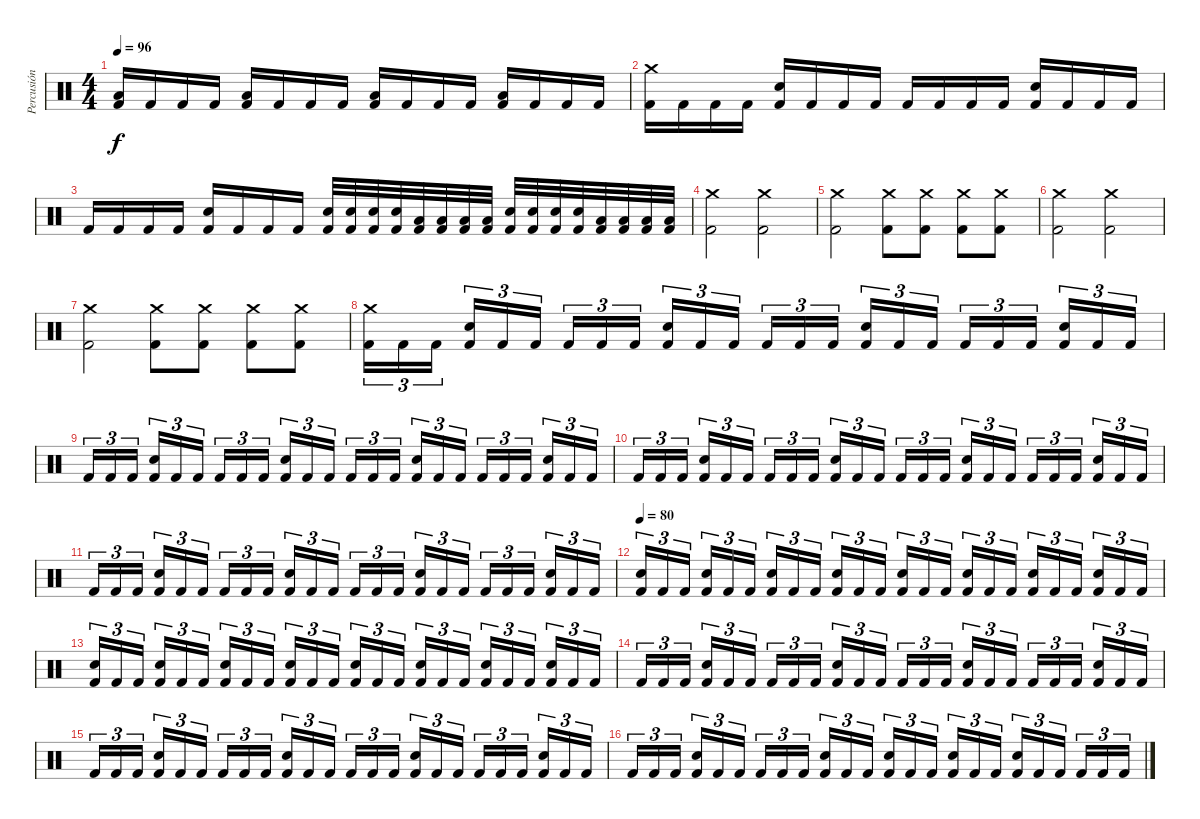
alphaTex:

\track ("Percusión" "Percusión") {instrument percussion}
\staff {score}
\articulation defaults
\ts (4 4)
\tempo 96
\clef neutral
\ks c
("Kick (hit) 2" "Low Tom (hit)").16{dy f} "Kick (hit) 2".16 "Kick (hit) 2".16 "Kick (hit) 2".16 ("Kick (hit) 2" "Low Floor Tom (hit)").16 "Kick (hit) 2".16 "Kick (hit) 2".16 "Kick (hit) 2".16 ("Kick (hit) 2" "Low Tom (hit)").16 "Kick (hit) 2".16 "Kick (hit) 2".16 "Kick (hit) 2".16 ("Kick (hit) 2" "Low Floor Tom (hit)").16 "Kick (hit) 2".16 "Kick (hit) 2".16 "Kick (hit) 2".16 |
("Kick (hit) 2" "Crash medium (hit)").16 "Kick (hit) 2".16 "Kick (hit) 2".16 "Kick (hit) 2".16 ("Kick (hit) 2" "Snare (hit) 2").16 "Kick (hit) 2".16 "Kick (hit) 2".16 "Kick (hit) 2".16 "Kick (hit) 2".16 "Kick (hit) 2".16 "Kick (hit) 2".16 "Kick (hit) 2".16 ("Kick (hit) 2" "Snare (hit) 2").16 "Kick (hit) 2".16 "Kick (hit) 2".16 "Kick (hit) 2".16 |
"Kick (hit) 2".16 "Kick (hit) 2".16 "Kick (hit) 2".16 "Kick (hit) 2".16 ("Kick (hit) 2" "Snare (hit) 2").16 "Kick (hit) 2".16 "Kick (hit) 2".16 "Kick (hit) 2".16 ("Kick (hit) 2" "Snare (hit) 2").32 ("Kick (hit) 2" "Snare (hit) 2").32 ("Kick (hit) 2" "Snare (hit) 2").32 ("Kick (hit) 2" "Snare (hit) 2").32 ("Kick (hit) 2" "Low Tom (hit)").32 ("Kick (hit) 2" "Low Tom (hit)").32 ("Kick (hit) 2" "Low Tom (hit)").32 ("Kick (hit) 2" "Low Tom (hit)").32 ("Kick (hit) 2" "Snare (hit) 2").32 ("Kick (hit) 2" "Snare (hit) 2").32 ("Kick (hit) 2" "Snare (hit) 2").32 ("Kick (hit) 2" "Snare (hit) 2").32 ("Kick (hit) 2" "Low Tom (hit)").32 ("Kick (hit) 2" "Low Tom (hit)").32 ("Kick (hit) 2" "Low Tom (hit)").32 ("Kick (hit) 2" "Low Tom (hit)").32 |
("Crash medium (hit)" "Kick (hit) 2").2 ("Crash medium (hit)" "Kick (hit) 2").2 |
("Crash medium (hit)" "Kick (hit) 2").2 ("Crash medium (hit)" "Kick (hit) 2").8 ("Crash medium (hit)" "Kick (hit) 2").8 ("Crash medium (hit)" "Kick (hit) 2").8 ("Crash medium (hit)" "Kick (hit) 2").8 |
("Crash medium (hit)" "Kick (hit) 2").2 ("Crash medium (hit)" "Kick (hit) 2").2 |
("Crash medium (hit)" "Kick (hit) 2").2 ("Crash medium (hit)" "Kick (hit) 2").8 ("Crash medium (hit)" "Kick (hit) 2").8 ("Crash medium (hit)" "Kick (hit) 2").8 ("Crash medium (hit)" "Kick (hit) 2").8 |
("Kick (hit) 2" "Crash medium (hit)").16{tu (3 2)} "Kick (hit) 2".16{tu (3 2)} "Kick (hit) 2".16{tu (3 2) beam splitsecondary} ("Kick (hit) 2" "Snare (hit) 2").16{tu (3 2)} "Kick (hit) 2".16{tu (3 2)} "Kick (hit) 2".16{tu (3 2)} "Kick (hit) 2".16{tu (3 2)} "Kick (hit) 2".16{tu (3 2)} "Kick (hit) 2".16{tu (3 2) beam splitsecondary} ("Kick (hit) 2" "Snare (hit) 2").16{tu (3 2)} "Kick (hit) 2".16{tu (3 2)} "Kick (hit) 2".16{tu (3 2)} "Kick (hit) 2".16{tu (3 2)} "Kick (hit) 2".16{tu (3 2)} "Kick (hit) 2".16{tu (3 2) beam splitsecondary} ("Kick (hit) 2" "Snare (hit) 2").16{tu (3 2)} "Kick (hit) 2".16{tu (3 2)} "Kick (hit) 2".16{tu (3 2)} "Kick (hit) 2".16{tu (3 2)} "Kick (hit) 2".16{tu (3 2)} "Kick (hit) 2".16{tu (3 2) beam splitsecondary} ("Kick (hit) 2" "Snare (hit) 2").16{tu (3 2)} "Kick (hit) 2".16{tu (3 2)} "Kick (hit) 2".16{tu (3 2)} |
"Kick (hit) 2".16{tu (3 2)} "Kick (hit) 2".16{tu (3 2)} "Kick (hit) 2".16{tu (3 2) beam splitsecondary} ("Kick (hit) 2" "Snare (hit) 2").16{tu (3 2)} "Kick (hit) 2".16{tu (3 2)} "Kick (hit) 2".16{tu (3 2)} "Kick (hit) 2".16{tu (3 2)} "Kick (hit) 2".16{tu (3 2)} "Kick (hit) 2".16{tu (3 2) beam splitsecondary} ("Kick (hit) 2" "Snare (hit) 2").16{tu (3 2)} "Kick (hit) 2".16{tu (3 2)} "Kick (hit) 2".16{tu (3 2)} "Kick (hit) 2".16{tu (3 2)} "Kick (hit) 2".16{tu (3 2)} "Kick (hit) 2".16{tu (3 2) beam splitsecondary} ("Kick (hit) 2" "Snare (hit) 2").16{tu (3 2)} "Kick (hit) 2".16{tu (3 2)} "Kick (hit) 2".16{tu (3 2)} "Kick (hit) 2".16{tu (3 2)} "Kick (hit) 2".16{tu (3 2)} "Kick (hit) 2".16{tu (3 2) beam splitsecondary} ("Kick (hit) 2" "Snare (hit) 2").16{tu (3 2)} "Kick (hit) 2".16{tu (3 2)} "Kick (hit) 2".16{tu (3 2)} |
"Kick (hit) 2".16{tu (3 2)} "Kick (hit) 2".16{tu (3 2)} "Kick (hit) 2".16{tu (3 2) beam splitsecondary} ("Kick (hit) 2" "Snare (hit) 2").16{tu (3 2)} "Kick (hit) 2".16{tu (3 2)} "Kick (hit) 2".16{tu (3 2)} "Kick (hit) 2".16{tu (3 2)} "Kick (hit) 2".16{tu (3 2)} "Kick (hit) 2".16{tu (3 2) beam splitsecondary} ("Kick (hit) 2" "Snare (hit) 2").16{tu (3 2)} "Kick (hit) 2".16{tu (3 2)} "Kick (hit) 2".16{tu (3 2)} "Kick (hit) 2".16{tu (3 2)} "Kick (hit) 2".16{tu (3 2)} "Kick (hit) 2".16{tu (3 2) beam splitsecondary} ("Kick (hit) 2" "Snare (hit) 2").16{tu (3 2)} "Kick (hit) 2".16{tu (3 2)} "Kick (hit) 2".16{tu (3 2)} "Kick (hit) 2".16{tu (3 2)} "Kick (hit) 2".16{tu (3 2)} "Kick (hit) 2".16{tu (3 2) beam splitsecondary} ("Kick (hit) 2" "Snare (hit) 2").16{tu (3 2)} "Kick (hit) 2".16{tu (3 2)} "Kick (hit) 2".16{tu (3 2)} |
"Kick (hit) 2".16{tu (3 2)} "Kick (hit) 2".16{tu (3 2)} "Kick (hit) 2".16{tu (3 2) beam splitsecondary} ("Kick (hit) 2" "Snare (hit) 2").16{tu (3 2)} "Kick (hit) 2".16{tu (3 2)} "Kick (hit) 2".16{tu (3 2)} "Kick (hit) 2".16{tu (3 2)} "Kick (hit) 2".16{tu (3 2)} "Kick (hit) 2".16{tu (3 2) beam splitsecondary} ("Kick (hit) 2" "Snare (hit) 2").16{tu (3 2)} "Kick (hit) 2".16{tu (3 2)} "Kick (hit) 2".16{tu (3 2)} "Kick (hit) 2".16{tu (3 2)} "Kick (hit) 2".16{tu (3 2)} "Kick (hit) 2".16{tu (3 2) beam splitsecondary} ("Kick (hit) 2" "Snare (hit) 2").16{tu (3 2)} "Kick (hit) 2".16{tu (3 2)} "Kick (hit) 2".16{tu (3 2)} "Kick (hit) 2".16{tu (3 2)} "Kick (hit) 2".16{tu (3 2)} "Kick (hit) 2".16{tu (3 2) beam splitsecondary} ("Kick (hit) 2" "Snare (hit) 2").16{tu (3 2)} "Kick (hit) 2".16{tu (3 2)} "Kick (hit) 2".16{tu (3 2)} |
\tempo 80
("Kick (hit) 2" "Snare (hit) 2").16{tu (3 2)} "Kick (hit) 2".16{tu (3 2)} "Kick (hit) 2".16{tu (3 2) beam splitsecondary} ("Kick (hit) 2" "Snare (hit) 2").16{tu (3 2)} "Kick (hit) 2".16{tu (3 2)} "Kick (hit) 2".16{tu (3 2)} ("Kick (hit) 2" "Snare (hit) 2").16{tu (3 2)} "Kick (hit) 2".16{tu (3 2)} "Kick (hit) 2".16{tu (3 2) beam splitsecondary} ("Kick (hit) 2" "Snare (hit) 2").16{tu (3 2)} "Kick (hit) 2".16{tu (3 2)} "Kick (hit) 2".16{tu (3 2)} ("Kick (hit) 2" "Snare (hit) 2").16{tu (3 2)} "Kick (hit) 2".16{tu (3 2)} "Kick (hit) 2".16{tu (3 2) beam splitsecondary} ("Kick (hit) 2" "Snare (hit) 2").16{tu (3 2)} "Kick (hit) 2".16{tu (3 2)} "Kick (hit) 2".16{tu (3 2)} ("Kick (hit) 2" "Snare (hit) 2").16{tu (3 2)} "Kick (hit) 2".16{tu (3 2)} "Kick (hit) 2".16{tu (3 2) beam splitsecondary} ("Kick (hit) 2" "Snare (hit) 2").16{tu (3 2)} "Kick (hit) 2".16{tu (3 2)} "Kick (hit) 2".16{tu (3 2)} |
("Kick (hit) 2" "Snare (hit) 2").16{tu (3 2)} "Kick (hit) 2".16{tu (3 2)} "Kick (hit) 2".16{tu (3 2) beam splitsecondary} ("Kick (hit) 2" "Snare (hit) 2").16{tu (3 2)} "Kick (hit) 2".16{tu (3 2)} "Kick (hit) 2".16{tu (3 2)} ("Kick (hit) 2" "Snare (hit) 2").16{tu (3 2)} "Kick (hit) 2".16{tu (3 2)} "Kick (hit) 2".16{tu (3 2) beam splitsecondary} ("Kick (hit) 2" "Snare (hit) 2").16{tu (3 2)} "Kick (hit) 2".16{tu (3 2)} "Kick (hit) 2".16{tu (3 2)} ("Kick (hit) 2" "Snare (hit) 2").16{tu (3 2)} "Kick (hit) 2".16{tu (3 2)} "Kick (hit) 2".16{tu (3 2) beam splitsecondary} ("Kick (hit) 2" "Snare (hit) 2").16{tu (3 2)} "Kick (hit) 2".16{tu (3 2)} "Kick (hit) 2".16{tu (3 2)} ("Kick (hit) 2" "Snare (hit) 2").16{tu (3 2)} "Kick (hit) 2".16{tu (3 2)} "Kick (hit) 2".16{tu (3 2) beam splitsecondary} ("Kick (hit) 2" "Snare (hit) 2").16{tu (3 2)} "Kick (hit) 2".16{tu (3 2)} "Kick (hit) 2".16{tu (3 2)} |
"Kick (hit) 2".16{tu (3 2)} "Kick (hit) 2".16{tu (3 2)} "Kick (hit) 2".16{tu (3 2) beam splitsecondary} ("Kick (hit) 2" "Snare (hit) 2").16{tu (3 2)} "Kick (hit) 2".16{tu (3 2)} "Kick (hit) 2".16{tu (3 2)} "Kick (hit) 2".16{tu (3 2)} "Kick (hit) 2".16{tu (3 2)} "Kick (hit) 2".16{tu (3 2) beam splitsecondary} ("Kick (hit) 2" "Snare (hit) 2").16{tu (3 2)} "Kick (hit) 2".16{tu (3 2)} "Kick (hit) 2".16{tu (3 2)} "Kick (hit) 2".16{tu (3 2)} "Kick (hit) 2".16{tu (3 2)} "Kick (hit) 2".16{tu (3 2) beam splitsecondary} ("Kick (hit) 2" "Snare (hit) 2").16{tu (3 2)} "Kick (hit) 2".16{tu (3 2)} "Kick (hit) 2".16{tu (3 2)} "Kick (hit) 2".16{tu (3 2)} "Kick (hit) 2".16{tu (3 2)} "Kick (hit) 2".16{tu (3 2) beam splitsecondary} ("Kick (hit) 2" "Snare (hit) 2").16{tu (3 2)} "Kick (hit) 2".16{tu (3 2)} "Kick (hit) 2".16{tu (3 2)} |
"Kick (hit) 2".16{tu (3 2)} "Kick (hit) 2".16{tu (3 2)} "Kick (hit) 2".16{tu (3 2) beam splitsecondary} ("Kick (hit) 2" "Snare (hit) 2").16{tu (3 2)} "Kick (hit) 2".16{tu (3 2)} "Kick (hit) 2".16{tu (3 2)} "Kick (hit) 2".16{tu (3 2)} "Kick (hit) 2".16{tu (3 2)} "Kick (hit) 2".16{tu (3 2) beam splitsecondary} ("Kick (hit) 2" "Snare (hit) 2").16{tu (3 2)} "Kick (hit) 2".16{tu (3 2)} "Kick (hit) 2".16{tu (3 2)} "Kick (hit) 2".16{tu (3 2)} "Kick (hit) 2".16{tu (3 2)} "Kick (hit) 2".16{tu (3 2) beam splitsecondary} ("Kick (hit) 2" "Snare (hit) 2").16{tu (3 2)} "Kick (hit) 2".16{tu (3 2)} "Kick (hit) 2".16{tu (3 2)} "Kick (hit) 2".16{tu (3 2)} "Kick (hit) 2".16{tu (3 2)} "Kick (hit) 2".16{tu (3 2) beam splitsecondary} ("Kick (hit) 2" "Snare (hit) 2").16{tu (3 2)} "Kick (hit) 2".16{tu (3 2)} "Kick (hit) 2".16{tu (3 2)} |
"Kick (hit) 2".16{tu (3 2)} "Kick (hit) 2".16{tu (3 2)} "Kick (hit) 2".16{tu (3 2) beam splitsecondary} ("Kick (hit) 2" "Snare (hit) 2").16{tu (3 2)} "Kick (hit) 2".16{tu (3 2)} "Kick (hit) 2".16{tu (3 2)} "Kick (hit) 2".16{tu (3 2)} "Kick (hit) 2".16{tu (3 2)} "Kick (hit) 2".16{tu (3 2) beam splitsecondary} ("Kick (hit) 2" "Snare (hit) 2").16{tu (3 2)} "Kick (hit) 2".16{tu (3 2)} "Kick (hit) 2".16{tu (3 2)} ("Kick (hit) 2" "Snare (hit) 2").16{tu (3 2)} "Kick (hit) 2".16{tu (3 2)} "Kick (hit) 2".16{tu (3 2) beam splitsecondary} ("Kick (hit) 2" "Snare (hit) 2").16{tu (3 2)} "Kick (hit) 2".16{tu (3 2)} "Kick (hit) 2".16{tu (3 2)} ("Kick (hit) 2" "Snare (hit) 2").16{tu (3 2)} "Kick (hit) 2".16{tu (3 2)} "Kick (hit) 2".16{tu (3 2) beam splitsecondary} "Kick (hit) 2".16{tu (3 2)} "Kick (hit) 2".16{tu (3 2)} "Kick (hit) 2".16{tu (3 2)}
